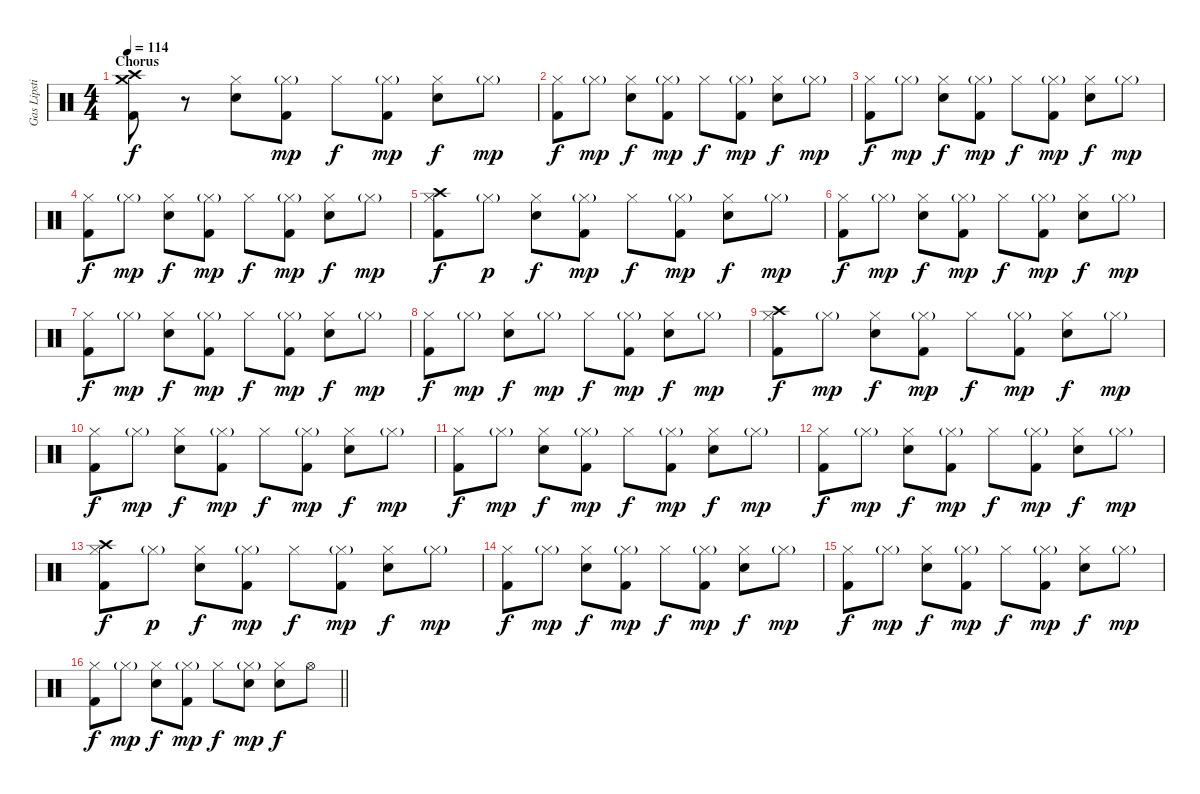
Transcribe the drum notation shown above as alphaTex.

\track ("Gas Lipstick (Drums)" "Gas Lipsti") {instrument percussion}
\staff {score}
\articulation defaults
\ts (4 4)
\section ("" "Chorus")
\tempo 114
\clef neutral
\ks c
("Crash medium (hit)" "Crash high (hit)" "Kick (hit) 2").8{dy f} r.8 ("Hi-Hat (closed)" "Snare (hit) 2").8 ("Hi-Hat (closed)"{g} "Kick (hit) 2").8{dy mp} "Hi-Hat (closed)".8{dy f} ("Hi-Hat (closed)"{g} "Kick (hit) 2").8{dy mp} ("Hi-Hat (closed)" "Snare (hit) 2").8{dy f} "Hi-Hat (closed)"{g}.8{dy mp} |
("Hi-Hat (closed)" "Kick (hit) 2").8{dy f} "Hi-Hat (closed)"{g}.8{dy mp} ("Hi-Hat (closed)" "Snare (hit) 2").8{dy f} ("Hi-Hat (closed)"{g} "Kick (hit) 2").8{dy mp} "Hi-Hat (closed)".8{dy f} ("Hi-Hat (closed)"{g} "Kick (hit) 2").8{dy mp} ("Hi-Hat (closed)" "Snare (hit) 2").8{dy f} "Hi-Hat (closed)"{g}.8{dy mp} |
("Hi-Hat (closed)" "Kick (hit) 2").8{dy f} "Hi-Hat (closed)"{g}.8{dy mp} ("Hi-Hat (closed)" "Snare (hit) 2").8{dy f} ("Hi-Hat (closed)"{g} "Kick (hit) 2").8{dy mp} "Hi-Hat (closed)".8{dy f} ("Hi-Hat (closed)"{g} "Kick (hit) 2").8{dy mp} ("Hi-Hat (closed)" "Snare (hit) 2").8{dy f} "Hi-Hat (closed)"{g}.8{dy mp} |
("Hi-Hat (closed)" "Kick (hit) 2").8{dy f} "Hi-Hat (closed)"{g}.8{dy mp} ("Hi-Hat (closed)" "Snare (hit) 2").8{dy f} ("Hi-Hat (closed)"{g} "Kick (hit) 2").8{dy mp} "Hi-Hat (closed)".8{dy f} ("Hi-Hat (closed)"{g} "Kick (hit) 2").8{dy mp} ("Hi-Hat (closed)" "Snare (hit) 2").8{dy f} "Hi-Hat (closed)"{g}.8{dy mp} |
("Crash high (hit)" "Hi-Hat (closed)" "Kick (hit) 2").8{dy f} "Hi-Hat (closed)"{g}.8{dy p} ("Hi-Hat (closed)" "Snare (hit) 2").8{dy f} ("Hi-Hat (closed)"{g} "Kick (hit) 2").8{dy mp} "Hi-Hat (closed)".8{dy f} ("Hi-Hat (closed)"{g} "Kick (hit) 2").8{dy mp} ("Hi-Hat (closed)" "Snare (hit) 2").8{dy f} "Hi-Hat (closed)"{g}.8{dy mp} |
("Hi-Hat (closed)" "Kick (hit) 2").8{dy f} "Hi-Hat (closed)"{g}.8{dy mp} ("Hi-Hat (closed)" "Snare (hit) 2").8{dy f} ("Hi-Hat (closed)"{g} "Kick (hit) 2").8{dy mp} "Hi-Hat (closed)".8{dy f} ("Hi-Hat (closed)"{g} "Kick (hit) 2").8{dy mp} ("Hi-Hat (closed)" "Snare (hit) 2").8{dy f} "Hi-Hat (closed)"{g}.8{dy mp} |
("Hi-Hat (closed)" "Kick (hit) 2").8{dy f} "Hi-Hat (closed)"{g}.8{dy mp} ("Hi-Hat (closed)" "Snare (hit) 2").8{dy f} ("Hi-Hat (closed)"{g} "Kick (hit) 2").8{dy mp} "Hi-Hat (closed)".8{dy f} ("Hi-Hat (closed)"{g} "Kick (hit) 2").8{dy mp} ("Hi-Hat (closed)" "Snare (hit) 2").8{dy f} "Hi-Hat (closed)"{g}.8{dy mp} |
("Hi-Hat (closed)" "Kick (hit) 2").8{dy f} "Hi-Hat (closed)"{g}.8{dy mp} ("Hi-Hat (closed)" "Snare (hit) 2").8{dy f} "Hi-Hat (closed)"{g}.8{dy mp} "Hi-Hat (closed)".8{dy f} ("Hi-Hat (closed)"{g} "Kick (hit) 2").8{dy mp} ("Hi-Hat (closed)" "Snare (hit) 2").8{dy f} "Hi-Hat (closed)"{g}.8{dy mp} |
("Crash high (hit)" "Hi-Hat (closed)" "Kick (hit) 2").8{dy f} "Hi-Hat (closed)"{g}.8{dy mp} ("Hi-Hat (closed)" "Snare (hit) 2").8{dy f} ("Hi-Hat (closed)"{g} "Kick (hit) 2").8{dy mp} "Hi-Hat (closed)".8{dy f} ("Hi-Hat (closed)"{g} "Kick (hit) 2").8{dy mp} ("Hi-Hat (closed)" "Snare (hit) 2").8{dy f} "Hi-Hat (closed)"{g}.8{dy mp} |
("Hi-Hat (closed)" "Kick (hit) 2").8{dy f} "Hi-Hat (closed)"{g}.8{dy mp} ("Hi-Hat (closed)" "Snare (hit) 2").8{dy f} ("Hi-Hat (closed)"{g} "Kick (hit) 2").8{dy mp} "Hi-Hat (closed)".8{dy f} ("Hi-Hat (closed)"{g} "Kick (hit) 2").8{dy mp} ("Hi-Hat (closed)" "Snare (hit) 2").8{dy f} "Hi-Hat (closed)"{g}.8{dy mp} |
("Hi-Hat (closed)" "Kick (hit) 2").8{dy f} "Hi-Hat (closed)"{g}.8{dy mp} ("Hi-Hat (closed)" "Snare (hit) 2").8{dy f} ("Hi-Hat (closed)"{g} "Kick (hit) 2").8{dy mp} "Hi-Hat (closed)".8{dy f} ("Hi-Hat (closed)"{g} "Kick (hit) 2").8{dy mp} ("Hi-Hat (closed)" "Snare (hit) 2").8{dy f} "Hi-Hat (closed)"{g}.8{dy mp} |
("Hi-Hat (closed)" "Kick (hit) 2").8{dy f} "Hi-Hat (closed)"{g}.8{dy mp} ("Hi-Hat (closed)" "Snare (hit) 2").8{dy f} ("Hi-Hat (closed)"{g} "Kick (hit) 2").8{dy mp} "Hi-Hat (closed)".8{dy f} ("Hi-Hat (closed)"{g} "Kick (hit) 2").8{dy mp} ("Hi-Hat (closed)" "Snare (hit) 2").8{dy f} "Hi-Hat (closed)"{g}.8{dy mp} |
("Crash high (hit)" "Hi-Hat (closed)" "Kick (hit) 2").8{dy f} "Hi-Hat (closed)"{g}.8{dy p} ("Hi-Hat (closed)" "Snare (hit) 2").8{dy f} ("Hi-Hat (closed)"{g} "Kick (hit) 2").8{dy mp} "Hi-Hat (closed)".8{dy f} ("Hi-Hat (closed)"{g} "Kick (hit) 2").8{dy mp} ("Hi-Hat (closed)" "Snare (hit) 2").8{dy f} "Hi-Hat (closed)"{g}.8{dy mp} |
("Hi-Hat (closed)" "Kick (hit) 2").8{dy f} "Hi-Hat (closed)"{g}.8{dy mp} ("Hi-Hat (closed)" "Snare (hit) 2").8{dy f} ("Hi-Hat (closed)"{g} "Kick (hit) 2").8{dy mp} "Hi-Hat (closed)".8{dy f} ("Hi-Hat (closed)"{g} "Kick (hit) 2").8{dy mp} ("Hi-Hat (closed)" "Snare (hit) 2").8{dy f} "Hi-Hat (closed)"{g}.8{dy mp} |
("Hi-Hat (closed)" "Kick (hit) 2").8{dy f} "Hi-Hat (closed)"{g}.8{dy mp} ("Hi-Hat (closed)" "Snare (hit) 2").8{dy f} ("Hi-Hat (closed)"{g} "Kick (hit) 2").8{dy mp} "Hi-Hat (closed)".8{dy f} ("Hi-Hat (closed)"{g} "Kick (hit) 2").8{dy mp} ("Hi-Hat (closed)" "Snare (hit) 2").8{dy f} "Hi-Hat (closed)"{g}.8{dy mp} |
\barLineRight lightlight
("Hi-Hat (closed)" "Kick (hit) 2").8{dy f} "Hi-Hat (closed)"{g}.8{dy mp} ("Hi-Hat (closed)" "Snare (hit) 2").8{dy f} ("Hi-Hat (closed)"{g} "Kick (hit) 2").8{dy mp} "Hi-Hat (closed)".8{dy f} ("Hi-Hat (closed)"{g} "Snare (hit) 2").8{dy mp} ("Hi-Hat (closed)" "Snare (hit) 2").8{dy f} "Hi-Hat (open)".8
